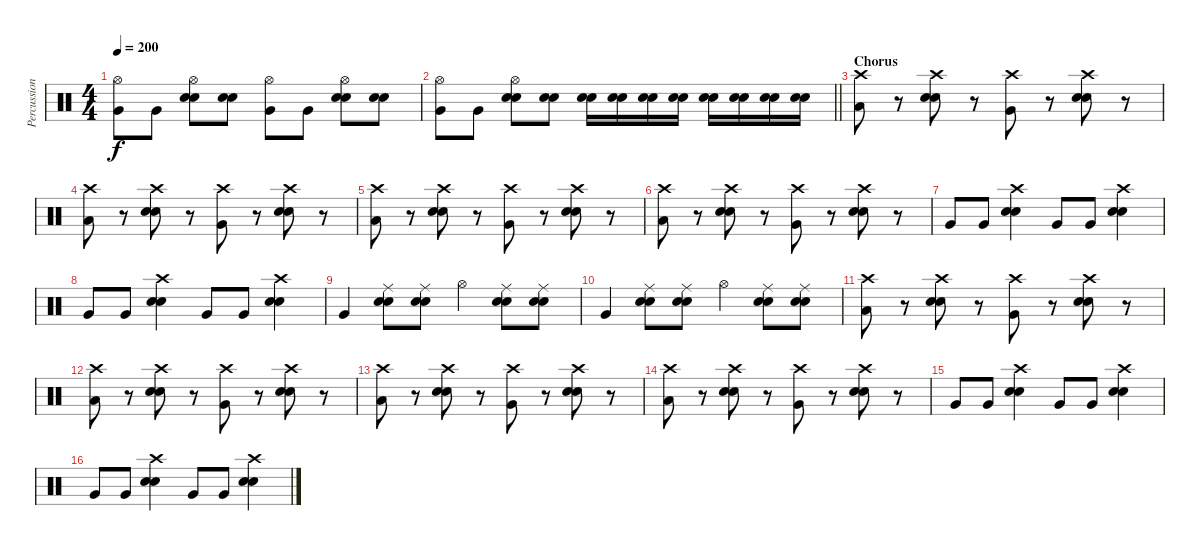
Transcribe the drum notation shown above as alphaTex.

\track ("Percussion" "Percussion") {instrument percussion}
\staff {score}
\articulation defaults
\ts (4 4)
\tempo 200
\clef neutral
\ks c
("Hi-Hat (open)" "Very Low Tom (hit)").8{dy f} "Very Low Tom (hit)".8 ("Hi-Hat (open)" "Snare (hit) 2" "Electric Snare (hit)").8 ("Snare (hit) 2" "Electric Snare (hit)").8 ("Hi-Hat (open)" "Very Low Tom (hit)").8 "Very Low Tom (hit)".8 ("Hi-Hat (open)" "Snare (hit) 2" "Electric Snare (hit)").8 ("Snare (hit) 2" "Electric Snare (hit)").8 |
\barLineRight lightlight
("Hi-Hat (open)" "Very Low Tom (hit)").8 "Very Low Tom (hit)".8 ("Hi-Hat (open)" "Snare (hit) 2" "Electric Snare (hit)").8 ("Snare (hit) 2" "Electric Snare (hit)").8 ("Snare (hit) 2" "Electric Snare (hit)").16 ("Snare (hit) 2" "Electric Snare (hit)").16 ("Snare (hit) 2" "Electric Snare (hit)").16 ("Snare (hit) 2" "Electric Snare (hit)").16 ("Snare (hit) 2" "Electric Snare (hit)").16 ("Snare (hit) 2" "Electric Snare (hit)").16 ("Snare (hit) 2" "Electric Snare (hit)").16 ("Snare (hit) 2" "Electric Snare (hit)").16 |
\section ("" "Chorus")
("Crash high (hit)" "Low Floor Tom (hit)").8 r.8 ("Crash high (hit)" "Snare (hit) 2" "Electric Snare (hit)").8 r.8 ("Crash high (hit)" "Very Low Tom (hit)").8 r.8 ("Crash high (hit)" "Snare (hit) 2" "Electric Snare (hit)").8 r.8 |
("Crash high (hit)" "Low Floor Tom (hit)").8 r.8 ("Crash high (hit)" "Snare (hit) 2" "Electric Snare (hit)").8 r.8 ("Crash high (hit)" "Very Low Tom (hit)").8 r.8 ("Crash high (hit)" "Snare (hit) 2" "Electric Snare (hit)").8 r.8 |
("Crash high (hit)" "Low Floor Tom (hit)").8 r.8 ("Crash high (hit)" "Snare (hit) 2" "Electric Snare (hit)").8 r.8 ("Crash high (hit)" "Very Low Tom (hit)").8 r.8 ("Crash high (hit)" "Snare (hit) 2" "Electric Snare (hit)").8 r.8 |
("Crash high (hit)" "Low Floor Tom (hit)").8 r.8 ("Crash high (hit)" "Snare (hit) 2" "Electric Snare (hit)").8 r.8 ("Crash high (hit)" "Very Low Tom (hit)").8 r.8 ("Crash high (hit)" "Snare (hit) 2" "Electric Snare (hit)").8 r.8 |
"Very Low Tom (hit)".8 "Very Low Tom (hit)".8 ("Crash high (hit)" "Snare (hit) 2" "Electric Snare (hit)").4 "Very Low Tom (hit)".8 "Very Low Tom (hit)".8 ("Crash high (hit)" "Snare (hit) 2" "Electric Snare (hit)").4 |
"Very Low Tom (hit)".8 "Very Low Tom (hit)".8 ("Crash high (hit)" "Snare (hit) 2" "Electric Snare (hit)").4 "Very Low Tom (hit)".8 "Very Low Tom (hit)".8 ("Crash high (hit)" "Snare (hit) 2" "Electric Snare (hit)").4 |
"Very Low Tom (hit)".4 ("Ride (middle)" "Snare (hit) 2" "Electric Snare (hit)").8 ("Ride (middle)" "Snare (hit) 2" "Electric Snare (hit)").8 "Hi-Hat (open)".4 ("Ride (middle)" "Snare (hit) 2" "Electric Snare (hit)").8 ("Ride (middle)" "Snare (hit) 2" "Electric Snare (hit)").8 |
"Very Low Tom (hit)".4 ("Ride (middle)" "Snare (hit) 2" "Electric Snare (hit)").8 ("Ride (middle)" "Snare (hit) 2" "Electric Snare (hit)").8 "Hi-Hat (open)".4 ("Ride (middle)" "Snare (hit) 2" "Electric Snare (hit)").8 ("Ride (middle)" "Snare (hit) 2" "Electric Snare (hit)").8 |
("Crash high (hit)" "Low Floor Tom (hit)").8 r.8 ("Crash high (hit)" "Snare (hit) 2" "Electric Snare (hit)").8 r.8 ("Crash high (hit)" "Very Low Tom (hit)").8 r.8 ("Crash high (hit)" "Snare (hit) 2" "Electric Snare (hit)").8 r.8 |
("Crash high (hit)" "Low Floor Tom (hit)").8 r.8 ("Crash high (hit)" "Snare (hit) 2" "Electric Snare (hit)").8 r.8 ("Crash high (hit)" "Very Low Tom (hit)").8 r.8 ("Crash high (hit)" "Snare (hit) 2" "Electric Snare (hit)").8 r.8 |
("Crash high (hit)" "Low Floor Tom (hit)").8 r.8 ("Crash high (hit)" "Snare (hit) 2" "Electric Snare (hit)").8 r.8 ("Crash high (hit)" "Very Low Tom (hit)").8 r.8 ("Crash high (hit)" "Snare (hit) 2" "Electric Snare (hit)").8 r.8 |
("Crash high (hit)" "Low Floor Tom (hit)").8 r.8 ("Crash high (hit)" "Snare (hit) 2" "Electric Snare (hit)").8 r.8 ("Crash high (hit)" "Very Low Tom (hit)").8 r.8 ("Crash high (hit)" "Snare (hit) 2" "Electric Snare (hit)").8 r.8 |
"Very Low Tom (hit)".8 "Very Low Tom (hit)".8 ("Crash high (hit)" "Snare (hit) 2" "Electric Snare (hit)").4 "Very Low Tom (hit)".8 "Very Low Tom (hit)".8 ("Crash high (hit)" "Snare (hit) 2" "Electric Snare (hit)").4 |
"Very Low Tom (hit)".8 "Very Low Tom (hit)".8 ("Crash high (hit)" "Snare (hit) 2" "Electric Snare (hit)").4 "Very Low Tom (hit)".8 "Very Low Tom (hit)".8 ("Crash high (hit)" "Snare (hit) 2" "Electric Snare (hit)").4
